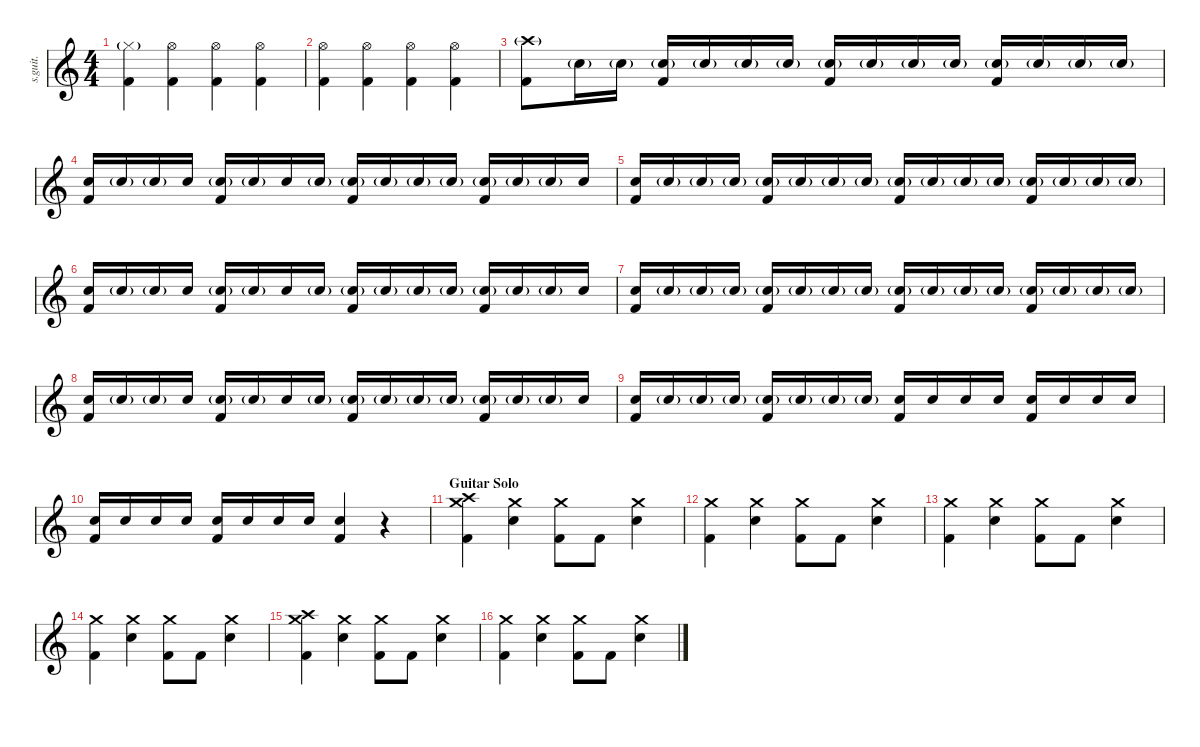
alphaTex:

\defaultSystemsLayout 4
\hideDynamics
\bracketExtendMode nobrackets
\track ("Zac Farro | Drums" "s.guit.") {instrument percussion}
\staff {score}
\articulation defaults
\ts (4 4)
\tempo (173 hide)
\clef g2
\ks c
("Hi-Hat (closed)"{g} "Kick (hit) 2").4{lyrics (0 "") lyrics (1 "") lyrics (2 "") lyrics (3 "") lyrics (4 "") dy f} ("Hi-Hat (open)" "Kick (hit) 2").4{lyrics (0 "") lyrics (1 "") lyrics (2 "") lyrics (3 "") lyrics (4 "")} ("Hi-Hat (open)" "Kick (hit) 2").4{lyrics (0 "") lyrics (1 "") lyrics (2 "") lyrics (3 "") lyrics (4 "")} ("Hi-Hat (open)" "Kick (hit) 2").4{lyrics (0 "") lyrics (1 "") lyrics (2 "") lyrics (3 "") lyrics (4 "")} |
("Hi-Hat (open)" "Kick (hit) 2").4{lyrics (0 "") lyrics (1 "") lyrics (2 "") lyrics (3 "") lyrics (4 "")} ("Hi-Hat (open)" "Kick (hit) 2").4{lyrics (0 "") lyrics (1 "") lyrics (2 "") lyrics (3 "") lyrics (4 "")} ("Hi-Hat (open)" "Kick (hit) 2").4{lyrics (0 "") lyrics (1 "") lyrics (2 "") lyrics (3 "") lyrics (4 "")} ("Hi-Hat (open)" "Kick (hit) 2").4{lyrics (0 "") lyrics (1 "") lyrics (2 "") lyrics (3 "") lyrics (4 "")} |
("Crash high (hit)"{g} "Kick (hit) 2").8{lyrics (0 "") lyrics (1 "") lyrics (2 "") lyrics (3 "") lyrics (4 "")} "Electric Snare (hit)"{g}.16{lyrics (0 "") lyrics (1 "") lyrics (2 "") lyrics (3 "") lyrics (4 "") dy pp} "Electric Snare (hit)"{g}.16{lyrics (0 "") lyrics (1 "") lyrics (2 "") lyrics (3 "") lyrics (4 "")} ("Electric Snare (hit)"{g} "Kick (hit) 2").16{lyrics (0 "") lyrics (1 "") lyrics (2 "") lyrics (3 "") lyrics (4 "")} "Electric Snare (hit)"{g}.16{lyrics (0 "") lyrics (1 "") lyrics (2 "") lyrics (3 "") lyrics (4 "")} "Electric Snare (hit)"{g}.16{lyrics (0 "") lyrics (1 "") lyrics (2 "") lyrics (3 "") lyrics (4 "")} "Electric Snare (hit)"{g}.16{lyrics (0 "") lyrics (1 "") lyrics (2 "") lyrics (3 "") lyrics (4 "")} ("Electric Snare (hit)"{g} "Kick (hit) 2").16{lyrics (0 "") lyrics (1 "") lyrics (2 "") lyrics (3 "") lyrics (4 "")} "Electric Snare (hit)"{g}.16{lyrics (0 "") lyrics (1 "") lyrics (2 "") lyrics (3 "") lyrics (4 "")} "Electric Snare (hit)"{g}.16{lyrics (0 "") lyrics (1 "") lyrics (2 "") lyrics (3 "") lyrics (4 "")} "Electric Snare (hit)"{g}.16{lyrics (0 "") lyrics (1 "") lyrics (2 "") lyrics (3 "") lyrics (4 "")} ("Electric Snare (hit)"{g} "Kick (hit) 2").16{lyrics (0 "") lyrics (1 "") lyrics (2 "") lyrics (3 "") lyrics (4 "")} "Electric Snare (hit)"{g}.16{lyrics (0 "") lyrics (1 "") lyrics (2 "") lyrics (3 "") lyrics (4 "")} "Electric Snare (hit)"{g}.16{lyrics (0 "") lyrics (1 "") lyrics (2 "") lyrics (3 "") lyrics (4 "")} "Electric Snare (hit)"{g}.16{lyrics (0 "") lyrics (1 "") lyrics (2 "") lyrics (3 "") lyrics (4 "")} |
("Electric Snare (hit)" "Kick (hit) 2").16{lyrics (0 "") lyrics (1 "") lyrics (2 "") lyrics (3 "") lyrics (4 "") dy f} "Electric Snare (hit)"{g}.16{lyrics (0 "") lyrics (1 "") lyrics (2 "") lyrics (3 "") lyrics (4 "") dy pp} "Electric Snare (hit)"{g}.16{lyrics (0 "") lyrics (1 "") lyrics (2 "") lyrics (3 "") lyrics (4 "")} "Electric Snare (hit)".16{lyrics (0 "") lyrics (1 "") lyrics (2 "") lyrics (3 "") lyrics (4 "") dy f} ("Electric Snare (hit)"{g} "Kick (hit) 2").16{lyrics (0 "") lyrics (1 "") lyrics (2 "") lyrics (3 "") lyrics (4 "")} "Electric Snare (hit)"{g}.16{lyrics (0 "") lyrics (1 "") lyrics (2 "") lyrics (3 "") lyrics (4 "") dy pp} "Electric Snare (hit)".16{lyrics (0 "") lyrics (1 "") lyrics (2 "") lyrics (3 "") lyrics (4 "") dy f} "Electric Snare (hit)"{g}.16{lyrics (0 "") lyrics (1 "") lyrics (2 "") lyrics (3 "") lyrics (4 "") dy pp} ("Electric Snare (hit)"{g} "Kick (hit) 2").16{lyrics (0 "") lyrics (1 "") lyrics (2 "") lyrics (3 "") lyrics (4 "")} "Electric Snare (hit)"{g}.16{lyrics (0 "") lyrics (1 "") lyrics (2 "") lyrics (3 "") lyrics (4 "")} "Electric Snare (hit)"{g}.16{lyrics (0 "") lyrics (1 "") lyrics (2 "") lyrics (3 "") lyrics (4 "")} "Electric Snare (hit)"{g}.16{lyrics (0 "") lyrics (1 "") lyrics (2 "") lyrics (3 "") lyrics (4 "")} ("Electric Snare (hit)"{g} "Kick (hit) 2").16{lyrics (0 "") lyrics (1 "") lyrics (2 "") lyrics (3 "") lyrics (4 "")} "Electric Snare (hit)"{g}.16{lyrics (0 "") lyrics (1 "") lyrics (2 "") lyrics (3 "") lyrics (4 "")} "Electric Snare (hit)"{g}.16{lyrics (0 "") lyrics (1 "") lyrics (2 "") lyrics (3 "") lyrics (4 "")} "Electric Snare (hit)".16{lyrics (0 "") lyrics (1 "") lyrics (2 "") lyrics (3 "") lyrics (4 "") dy f} |
("Electric Snare (hit)" "Kick (hit) 2").16{lyrics (0 "") lyrics (1 "") lyrics (2 "") lyrics (3 "") lyrics (4 "")} "Electric Snare (hit)"{g}.16{lyrics (0 "") lyrics (1 "") lyrics (2 "") lyrics (3 "") lyrics (4 "") dy pp} "Electric Snare (hit)"{g}.16{lyrics (0 "") lyrics (1 "") lyrics (2 "") lyrics (3 "") lyrics (4 "")} "Electric Snare (hit)"{g}.16{lyrics (0 "") lyrics (1 "") lyrics (2 "") lyrics (3 "") lyrics (4 "")} ("Electric Snare (hit)"{g} "Kick (hit) 2").16{lyrics (0 "") lyrics (1 "") lyrics (2 "") lyrics (3 "") lyrics (4 "")} "Electric Snare (hit)"{g}.16{lyrics (0 "") lyrics (1 "") lyrics (2 "") lyrics (3 "") lyrics (4 "")} "Electric Snare (hit)"{g}.16{lyrics (0 "") lyrics (1 "") lyrics (2 "") lyrics (3 "") lyrics (4 "")} "Electric Snare (hit)"{g}.16{lyrics (0 "") lyrics (1 "") lyrics (2 "") lyrics (3 "") lyrics (4 "")} ("Electric Snare (hit)"{g} "Kick (hit) 2").16{lyrics (0 "") lyrics (1 "") lyrics (2 "") lyrics (3 "") lyrics (4 "")} "Electric Snare (hit)"{g}.16{lyrics (0 "") lyrics (1 "") lyrics (2 "") lyrics (3 "") lyrics (4 "")} "Electric Snare (hit)"{g}.16{lyrics (0 "") lyrics (1 "") lyrics (2 "") lyrics (3 "") lyrics (4 "")} "Electric Snare (hit)"{g}.16{lyrics (0 "") lyrics (1 "") lyrics (2 "") lyrics (3 "") lyrics (4 "")} ("Electric Snare (hit)"{g} "Kick (hit) 2").16{lyrics (0 "") lyrics (1 "") lyrics (2 "") lyrics (3 "") lyrics (4 "")} "Electric Snare (hit)"{g}.16{lyrics (0 "") lyrics (1 "") lyrics (2 "") lyrics (3 "") lyrics (4 "")} "Electric Snare (hit)"{g}.16{lyrics (0 "") lyrics (1 "") lyrics (2 "") lyrics (3 "") lyrics (4 "")} "Electric Snare (hit)"{g}.16{lyrics (0 "") lyrics (1 "") lyrics (2 "") lyrics (3 "") lyrics (4 "")} |
("Electric Snare (hit)" "Kick (hit) 2").16{lyrics (0 "") lyrics (1 "") lyrics (2 "") lyrics (3 "") lyrics (4 "") dy f} "Electric Snare (hit)"{g}.16{lyrics (0 "") lyrics (1 "") lyrics (2 "") lyrics (3 "") lyrics (4 "") dy pp} "Electric Snare (hit)"{g}.16{lyrics (0 "") lyrics (1 "") lyrics (2 "") lyrics (3 "") lyrics (4 "")} "Electric Snare (hit)".16{lyrics (0 "") lyrics (1 "") lyrics (2 "") lyrics (3 "") lyrics (4 "") dy f} ("Electric Snare (hit)"{g} "Kick (hit) 2").16{lyrics (0 "") lyrics (1 "") lyrics (2 "") lyrics (3 "") lyrics (4 "")} "Electric Snare (hit)"{g}.16{lyrics (0 "") lyrics (1 "") lyrics (2 "") lyrics (3 "") lyrics (4 "") dy pp} "Electric Snare (hit)".16{lyrics (0 "") lyrics (1 "") lyrics (2 "") lyrics (3 "") lyrics (4 "") dy f} "Electric Snare (hit)"{g}.16{lyrics (0 "") lyrics (1 "") lyrics (2 "") lyrics (3 "") lyrics (4 "") dy pp} ("Electric Snare (hit)"{g} "Kick (hit) 2").16{lyrics (0 "") lyrics (1 "") lyrics (2 "") lyrics (3 "") lyrics (4 "")} "Electric Snare (hit)"{g}.16{lyrics (0 "") lyrics (1 "") lyrics (2 "") lyrics (3 "") lyrics (4 "")} "Electric Snare (hit)"{g}.16{lyrics (0 "") lyrics (1 "") lyrics (2 "") lyrics (3 "") lyrics (4 "")} "Electric Snare (hit)"{g}.16{lyrics (0 "") lyrics (1 "") lyrics (2 "") lyrics (3 "") lyrics (4 "")} ("Electric Snare (hit)"{g} "Kick (hit) 2").16{lyrics (0 "") lyrics (1 "") lyrics (2 "") lyrics (3 "") lyrics (4 "")} "Electric Snare (hit)"{g}.16{lyrics (0 "") lyrics (1 "") lyrics (2 "") lyrics (3 "") lyrics (4 "")} "Electric Snare (hit)"{g}.16{lyrics (0 "") lyrics (1 "") lyrics (2 "") lyrics (3 "") lyrics (4 "")} "Electric Snare (hit)".16{lyrics (0 "") lyrics (1 "") lyrics (2 "") lyrics (3 "") lyrics (4 "") dy f} |
("Electric Snare (hit)" "Kick (hit) 2").16{lyrics (0 "") lyrics (1 "") lyrics (2 "") lyrics (3 "") lyrics (4 "")} "Electric Snare (hit)"{g}.16{lyrics (0 "") lyrics (1 "") lyrics (2 "") lyrics (3 "") lyrics (4 "") dy pp} "Electric Snare (hit)"{g}.16{lyrics (0 "") lyrics (1 "") lyrics (2 "") lyrics (3 "") lyrics (4 "")} "Electric Snare (hit)"{g}.16{lyrics (0 "") lyrics (1 "") lyrics (2 "") lyrics (3 "") lyrics (4 "")} ("Electric Snare (hit)"{g} "Kick (hit) 2").16{lyrics (0 "") lyrics (1 "") lyrics (2 "") lyrics (3 "") lyrics (4 "")} "Electric Snare (hit)"{g}.16{lyrics (0 "") lyrics (1 "") lyrics (2 "") lyrics (3 "") lyrics (4 "")} "Electric Snare (hit)"{g}.16{lyrics (0 "") lyrics (1 "") lyrics (2 "") lyrics (3 "") lyrics (4 "")} "Electric Snare (hit)"{g}.16{lyrics (0 "") lyrics (1 "") lyrics (2 "") lyrics (3 "") lyrics (4 "")} ("Electric Snare (hit)"{g} "Kick (hit) 2").16{lyrics (0 "") lyrics (1 "") lyrics (2 "") lyrics (3 "") lyrics (4 "")} "Electric Snare (hit)"{g}.16{lyrics (0 "") lyrics (1 "") lyrics (2 "") lyrics (3 "") lyrics (4 "")} "Electric Snare (hit)"{g}.16{lyrics (0 "") lyrics (1 "") lyrics (2 "") lyrics (3 "") lyrics (4 "")} "Electric Snare (hit)"{g}.16{lyrics (0 "") lyrics (1 "") lyrics (2 "") lyrics (3 "") lyrics (4 "")} ("Electric Snare (hit)"{g} "Kick (hit) 2").16{lyrics (0 "") lyrics (1 "") lyrics (2 "") lyrics (3 "") lyrics (4 "")} "Electric Snare (hit)"{g}.16{lyrics (0 "") lyrics (1 "") lyrics (2 "") lyrics (3 "") lyrics (4 "")} "Electric Snare (hit)"{g}.16{lyrics (0 "") lyrics (1 "") lyrics (2 "") lyrics (3 "") lyrics (4 "")} "Electric Snare (hit)"{g}.16{lyrics (0 "") lyrics (1 "") lyrics (2 "") lyrics (3 "") lyrics (4 "")} |
("Electric Snare (hit)" "Kick (hit) 2").16{lyrics (0 "") lyrics (1 "") lyrics (2 "") lyrics (3 "") lyrics (4 "") dy f} "Electric Snare (hit)"{g}.16{lyrics (0 "") lyrics (1 "") lyrics (2 "") lyrics (3 "") lyrics (4 "") dy pp} "Electric Snare (hit)"{g}.16{lyrics (0 "") lyrics (1 "") lyrics (2 "") lyrics (3 "") lyrics (4 "")} "Electric Snare (hit)".16{lyrics (0 "") lyrics (1 "") lyrics (2 "") lyrics (3 "") lyrics (4 "") dy f} ("Electric Snare (hit)"{g} "Kick (hit) 2").16{lyrics (0 "") lyrics (1 "") lyrics (2 "") lyrics (3 "") lyrics (4 "")} "Electric Snare (hit)"{g}.16{lyrics (0 "") lyrics (1 "") lyrics (2 "") lyrics (3 "") lyrics (4 "") dy pp} "Electric Snare (hit)".16{lyrics (0 "") lyrics (1 "") lyrics (2 "") lyrics (3 "") lyrics (4 "") dy f} "Electric Snare (hit)"{g}.16{lyrics (0 "") lyrics (1 "") lyrics (2 "") lyrics (3 "") lyrics (4 "") dy pp} ("Electric Snare (hit)"{g} "Kick (hit) 2").16{lyrics (0 "") lyrics (1 "") lyrics (2 "") lyrics (3 "") lyrics (4 "")} "Electric Snare (hit)"{g}.16{lyrics (0 "") lyrics (1 "") lyrics (2 "") lyrics (3 "") lyrics (4 "")} "Electric Snare (hit)"{g}.16{lyrics (0 "") lyrics (1 "") lyrics (2 "") lyrics (3 "") lyrics (4 "")} "Electric Snare (hit)"{g}.16{lyrics (0 "") lyrics (1 "") lyrics (2 "") lyrics (3 "") lyrics (4 "")} ("Electric Snare (hit)"{g} "Kick (hit) 2").16{lyrics (0 "") lyrics (1 "") lyrics (2 "") lyrics (3 "") lyrics (4 "")} "Electric Snare (hit)"{g}.16{lyrics (0 "") lyrics (1 "") lyrics (2 "") lyrics (3 "") lyrics (4 "")} "Electric Snare (hit)"{g}.16{lyrics (0 "") lyrics (1 "") lyrics (2 "") lyrics (3 "") lyrics (4 "")} "Electric Snare (hit)".16{lyrics (0 "") lyrics (1 "") lyrics (2 "") lyrics (3 "") lyrics (4 "") dy f} |
("Electric Snare (hit)" "Kick (hit) 2").16{lyrics (0 "") lyrics (1 "") lyrics (2 "") lyrics (3 "") lyrics (4 "")} "Electric Snare (hit)"{g}.16{lyrics (0 "") lyrics (1 "") lyrics (2 "") lyrics (3 "") lyrics (4 "") dy pp} "Electric Snare (hit)"{g}.16{lyrics (0 "") lyrics (1 "") lyrics (2 "") lyrics (3 "") lyrics (4 "")} "Electric Snare (hit)"{g}.16{lyrics (0 "") lyrics (1 "") lyrics (2 "") lyrics (3 "") lyrics (4 "")} ("Electric Snare (hit)"{g} "Kick (hit) 2").16{lyrics (0 "") lyrics (1 "") lyrics (2 "") lyrics (3 "") lyrics (4 "")} "Electric Snare (hit)"{g}.16{lyrics (0 "") lyrics (1 "") lyrics (2 "") lyrics (3 "") lyrics (4 "")} "Electric Snare (hit)"{g}.16{lyrics (0 "") lyrics (1 "") lyrics (2 "") lyrics (3 "") lyrics (4 "")} "Electric Snare (hit)"{g}.16{lyrics (0 "") lyrics (1 "") lyrics (2 "") lyrics (3 "") lyrics (4 "")} ("Electric Snare (hit)" "Kick (hit) 2").16{lyrics (0 "") lyrics (1 "") lyrics (2 "") lyrics (3 "") lyrics (4 "")} "Electric Snare (hit)".16{lyrics (0 "") lyrics (1 "") lyrics (2 "") lyrics (3 "") lyrics (4 "")} "Electric Snare (hit)".16{lyrics (0 "") lyrics (1 "") lyrics (2 "") lyrics (3 "") lyrics (4 "")} "Electric Snare (hit)".16{lyrics (0 "") lyrics (1 "") lyrics (2 "") lyrics (3 "") lyrics (4 "")} ("Electric Snare (hit)" "Kick (hit) 2").16{lyrics (0 "") lyrics (1 "") lyrics (2 "") lyrics (3 "") lyrics (4 "") dy f} "Electric Snare (hit)".16{lyrics (0 "") lyrics (1 "") lyrics (2 "") lyrics (3 "") lyrics (4 "") dy p} "Electric Snare (hit)".16{lyrics (0 "") lyrics (1 "") lyrics (2 "") lyrics (3 "") lyrics (4 "")} "Electric Snare (hit)".16{lyrics (0 "") lyrics (1 "") lyrics (2 "") lyrics (3 "") lyrics (4 "")} |
("Electric Snare (hit)" "Kick (hit) 2").16{lyrics (0 "") lyrics (1 "") lyrics (2 "") lyrics (3 "") lyrics (4 "") dy f} "Electric Snare (hit)".16{lyrics (0 "") lyrics (1 "") lyrics (2 "") lyrics (3 "") lyrics (4 "") dy mp} "Electric Snare (hit)".16{lyrics (0 "") lyrics (1 "") lyrics (2 "") lyrics (3 "") lyrics (4 "")} "Electric Snare (hit)".16{lyrics (0 "") lyrics (1 "") lyrics (2 "") lyrics (3 "") lyrics (4 "")} ("Electric Snare (hit)" "Kick (hit) 2").16{lyrics (0 "") lyrics (1 "") lyrics (2 "") lyrics (3 "") lyrics (4 "") dy f} "Electric Snare (hit)".16{lyrics (0 "") lyrics (1 "") lyrics (2 "") lyrics (3 "") lyrics (4 "") dy mf} "Electric Snare (hit)".16{lyrics (0 "") lyrics (1 "") lyrics (2 "") lyrics (3 "") lyrics (4 "")} "Electric Snare (hit)".16{lyrics (0 "") lyrics (1 "") lyrics (2 "") lyrics (3 "") lyrics (4 "")} ("Electric Snare (hit)" "Kick (hit) 2").4{lyrics (0 "") lyrics (1 "") lyrics (2 "") lyrics (3 "") lyrics (4 "") dy f} r.4 |
\section ("" "Guitar Solo")
("Crash high (hit)" "Crash medium (hit)" "Kick (hit) 2").4{lyrics (0 "") lyrics (1 "") lyrics (2 "") lyrics (3 "") lyrics (4 "")} ("Crash medium (hit)" "Electric Snare (hit)").4{lyrics (0 "") lyrics (1 "") lyrics (2 "") lyrics (3 "") lyrics (4 "")} ("Crash medium (hit)" "Kick (hit) 2").8{lyrics (0 "") lyrics (1 "") lyrics (2 "") lyrics (3 "") lyrics (4 "")} "Kick (hit) 2".8{lyrics (0 "") lyrics (1 "") lyrics (2 "") lyrics (3 "") lyrics (4 "")} ("Crash medium (hit)" "Electric Snare (hit)").4{lyrics (0 "") lyrics (1 "") lyrics (2 "") lyrics (3 "") lyrics (4 "")} |
("Crash medium (hit)" "Kick (hit) 2").4{lyrics (0 "") lyrics (1 "") lyrics (2 "") lyrics (3 "") lyrics (4 "")} ("Crash medium (hit)" "Electric Snare (hit)").4{lyrics (0 "") lyrics (1 "") lyrics (2 "") lyrics (3 "") lyrics (4 "")} ("Crash medium (hit)" "Kick (hit) 2").8{lyrics (0 "") lyrics (1 "") lyrics (2 "") lyrics (3 "") lyrics (4 "")} "Kick (hit) 2".8{lyrics (0 "") lyrics (1 "") lyrics (2 "") lyrics (3 "") lyrics (4 "")} ("Crash medium (hit)" "Electric Snare (hit)").4{lyrics (0 "") lyrics (1 "") lyrics (2 "") lyrics (3 "") lyrics (4 "")} |
("Crash medium (hit)" "Kick (hit) 2").4{lyrics (0 "") lyrics (1 "") lyrics (2 "") lyrics (3 "") lyrics (4 "")} ("Crash medium (hit)" "Electric Snare (hit)").4{lyrics (0 "") lyrics (1 "") lyrics (2 "") lyrics (3 "") lyrics (4 "")} ("Crash medium (hit)" "Kick (hit) 2").8{lyrics (0 "") lyrics (1 "") lyrics (2 "") lyrics (3 "") lyrics (4 "")} "Kick (hit) 2".8{lyrics (0 "") lyrics (1 "") lyrics (2 "") lyrics (3 "") lyrics (4 "")} ("Crash medium (hit)" "Electric Snare (hit)").4{lyrics (0 "") lyrics (1 "") lyrics (2 "") lyrics (3 "") lyrics (4 "")} |
("Crash medium (hit)" "Kick (hit) 2").4{lyrics (0 "") lyrics (1 "") lyrics (2 "") lyrics (3 "") lyrics (4 "")} ("Crash medium (hit)" "Electric Snare (hit)").4{lyrics (0 "") lyrics (1 "") lyrics (2 "") lyrics (3 "") lyrics (4 "")} ("Crash medium (hit)" "Kick (hit) 2").8{lyrics (0 "") lyrics (1 "") lyrics (2 "") lyrics (3 "") lyrics (4 "")} "Kick (hit) 2".8{lyrics (0 "") lyrics (1 "") lyrics (2 "") lyrics (3 "") lyrics (4 "")} ("Crash medium (hit)" "Electric Snare (hit)").4{lyrics (0 "") lyrics (1 "") lyrics (2 "") lyrics (3 "") lyrics (4 "")} |
("Crash high (hit)" "Crash medium (hit)" "Kick (hit) 2").4{lyrics (0 "") lyrics (1 "") lyrics (2 "") lyrics (3 "") lyrics (4 "")} ("Crash medium (hit)" "Electric Snare (hit)").4{lyrics (0 "") lyrics (1 "") lyrics (2 "") lyrics (3 "") lyrics (4 "")} ("Crash medium (hit)" "Kick (hit) 2").8{lyrics (0 "") lyrics (1 "") lyrics (2 "") lyrics (3 "") lyrics (4 "")} "Kick (hit) 2".8{lyrics (0 "") lyrics (1 "") lyrics (2 "") lyrics (3 "") lyrics (4 "")} ("Crash medium (hit)" "Electric Snare (hit)").4{lyrics (0 "") lyrics (1 "") lyrics (2 "") lyrics (3 "") lyrics (4 "")} |
("Crash medium (hit)" "Kick (hit) 2").4{lyrics (0 "") lyrics (1 "") lyrics (2 "") lyrics (3 "") lyrics (4 "")} ("Crash medium (hit)" "Electric Snare (hit)").4{lyrics (0 "") lyrics (1 "") lyrics (2 "") lyrics (3 "") lyrics (4 "")} ("Crash medium (hit)" "Kick (hit) 2").8{lyrics (0 "") lyrics (1 "") lyrics (2 "") lyrics (3 "") lyrics (4 "")} "Kick (hit) 2".8{lyrics (0 "") lyrics (1 "") lyrics (2 "") lyrics (3 "") lyrics (4 "")} ("Crash medium (hit)" "Electric Snare (hit)").4{lyrics (0 "") lyrics (1 "") lyrics (2 "") lyrics (3 "") lyrics (4 "")}
